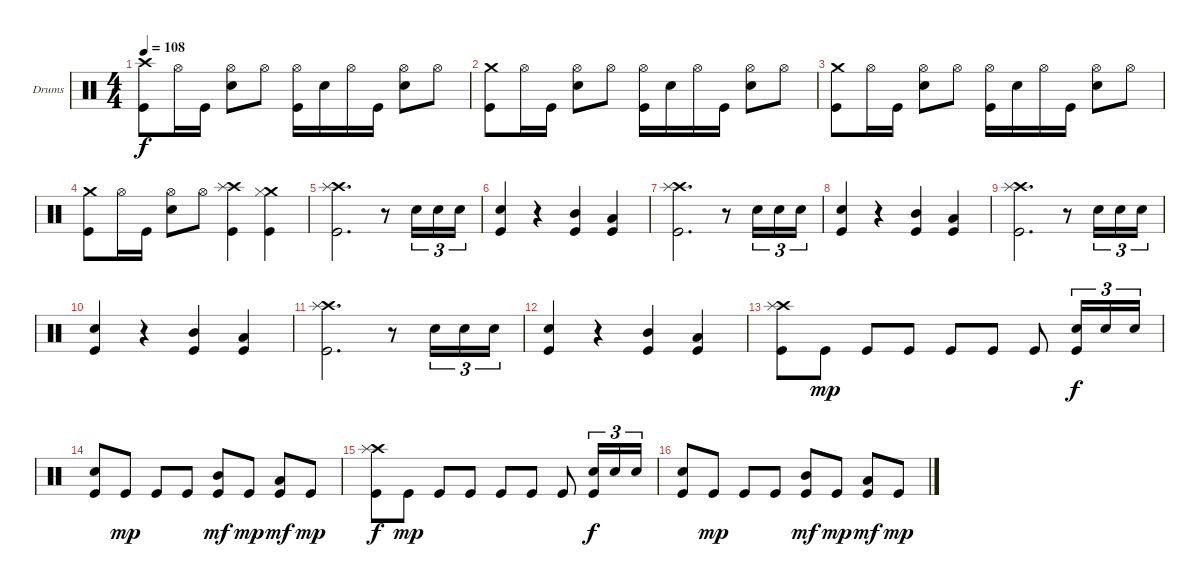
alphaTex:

\defaultSystemsLayout 4
\bracketExtendMode groupsimilarinstruments
\firstSystemTrackNameOrientation horizontal
\otherSystemsTrackNameOrientation horizontal
\track ("Drumkit" "Drums") {instrument percussion}
\staff {score}
\articulation defaults
\ts (4 4)
\tempo 108
\clef neutral
\ks c
("Kick (hit)" "Crash high (hit)").8{dy f} "Hi-Hat (open)".16 "Kick (hit)".16 ("Hi-Hat (open)" "Snare (hit) 2").8 "Hi-Hat (open)".8 ("Hi-Hat (open)" "Kick (hit)").16 "Snare (hit) 2".16 "Hi-Hat (open)".16 "Kick (hit)".16 ("Hi-Hat (open)" "Snare (hit) 2").8 "Hi-Hat (open)".8 |
("Kick (hit)" "Crash medium (hit)").8 "Hi-Hat (open)".16 "Kick (hit)".16 ("Hi-Hat (open)" "Snare (hit) 2").8 "Hi-Hat (open)".8 ("Hi-Hat (open)" "Kick (hit)").16 "Snare (hit) 2".16 "Hi-Hat (open)".16 "Kick (hit)".16 ("Hi-Hat (open)" "Snare (hit) 2").8 "Hi-Hat (open)".8 |
("Kick (hit)" "Crash medium (hit)").8 "Hi-Hat (open)".16 "Kick (hit)".16 ("Hi-Hat (open)" "Snare (hit) 2").8 "Hi-Hat (open)".8 ("Hi-Hat (open)" "Kick (hit)").16 "Snare (hit) 2".16 "Hi-Hat (open)".16 "Kick (hit)".16 ("Hi-Hat (open)" "Snare (hit) 2").8 "Hi-Hat (open)".8 |
("Kick (hit)" "Crash medium (hit)").8 "Hi-Hat (open)".16 "Kick (hit)".16 ("Hi-Hat (open)" "Snare (hit) 2").8 "Hi-Hat (open)".8 ("Kick (hit)" "Crash high (hit)" "Splash (hit)").4 ("Crash medium (hit)" "Hi-Hat (closed)" "Kick (hit)").4 |
("Kick (hit)" "Crash high (hit)" "Splash (hit)").2{d} r.8 "Snare (hit) 2".16{tu (3 2)} "Snare (hit) 2".16{tu (3 2)} "Snare (hit) 2".16{tu (3 2)} |
("Kick (hit)" "Snare (hit) 2").4 r.4 ("Kick (hit)" "Mid Tom (hit)").4 ("Kick (hit)" "Low Tom (hit)").4 |
("Kick (hit)" "Crash high (hit)" "Splash (hit)").2{d} r.8 "Snare (hit) 2".16{tu (3 2)} "Snare (hit) 2".16{tu (3 2)} "Snare (hit) 2".16{tu (3 2)} |
("Kick (hit)" "Snare (hit) 2").4 r.4 ("Kick (hit)" "Mid Tom (hit)").4 ("Kick (hit)" "Low Tom (hit)").4 |
("Kick (hit)" "Crash high (hit)" "Splash (hit)").2{d} r.8 "Snare (hit) 2".16{tu (3 2)} "Snare (hit) 2".16{tu (3 2)} "Snare (hit) 2".16{tu (3 2)} |
("Kick (hit)" "Snare (hit) 2").4 r.4 ("Kick (hit)" "Mid Tom (hit)").4 ("Kick (hit)" "Low Tom (hit)").4 |
("Kick (hit)" "Crash high (hit)" "Splash (hit)").2{d} r.8 "Snare (hit) 2".16{tu (3 2)} "Snare (hit) 2".16{tu (3 2)} "Snare (hit) 2".16{tu (3 2)} |
("Kick (hit)" "Snare (hit) 2").4 r.4 ("Kick (hit)" "Mid Tom (hit)").4 ("Kick (hit)" "Low Tom (hit)").4 |
("Kick (hit)" "Crash high (hit)" "Splash (hit)").8 "Kick (hit)".8{dy mp} "Kick (hit)".8 "Kick (hit)".8 "Kick (hit)".8 "Kick (hit)".8 "Kick (hit)".8 ("Kick (hit)" "Snare (hit) 2").16{tu (3 2) dy f} "Snare (hit) 2".16{tu (3 2)} "Snare (hit) 2".16{tu (3 2)} |
("Snare (hit) 2" "Kick (hit)").8 "Kick (hit)".8{dy mp} "Kick (hit)".8 "Kick (hit)".8 ("Kick (hit)" "Mid Tom (hit)").8{dy mf} "Kick (hit)".8{dy mp} ("Kick (hit)" "Low Tom (hit)").8{dy mf} "Kick (hit)".8{dy mp} |
("Kick (hit)" "Crash high (hit)" "Splash (hit)").8{dy f} "Kick (hit)".8{dy mp} "Kick (hit)".8 "Kick (hit)".8 "Kick (hit)".8 "Kick (hit)".8 "Kick (hit)".8 ("Kick (hit)" "Snare (hit) 2").16{tu (3 2) dy f} "Snare (hit) 2".16{tu (3 2)} "Snare (hit) 2".16{tu (3 2)} |
("Snare (hit) 2" "Kick (hit)").8 "Kick (hit)".8{dy mp} "Kick (hit)".8 "Kick (hit)".8 ("Kick (hit)" "Mid Tom (hit)").8{dy mf} "Kick (hit)".8{dy mp} ("Kick (hit)" "Low Tom (hit)").8{dy mf} "Kick (hit)".8{dy mp}
